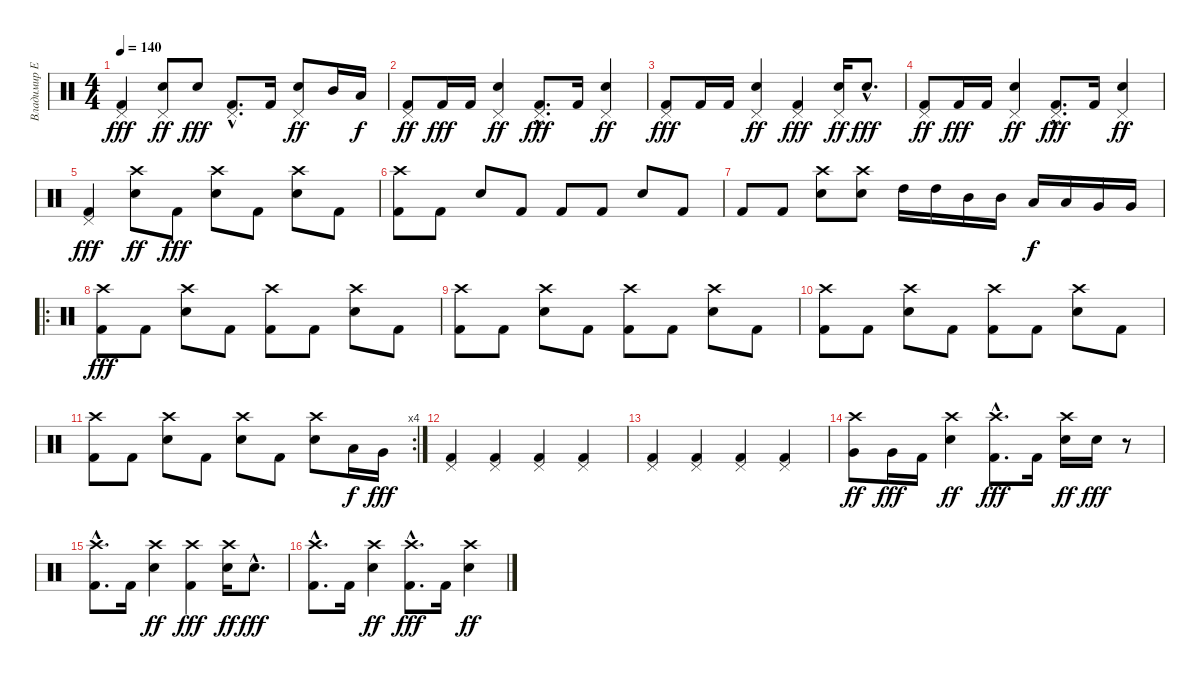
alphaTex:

\track ("Владимир Ермаков" "Владимир Е") {instrument percussion}
\staff {score}
\articulation defaults
\ts (4 4)
\tempo 140
\clef neutral
\ks c
("Kick (hit) 2" "Pedal Hi-Hat (hit)").4{dy fff} ("Electric Snare (hit)" "Pedal Hi-Hat (hit)").8{dy ff} "Electric Snare (hit)".8{dy fff} ("Kick (hit) 2"{hac} "Pedal Hi-Hat (hit)"{hac}).8{d} "Kick (hit) 2".16 ("Electric Snare (hit)" "Pedal Hi-Hat (hit)").8{dy ff} "Mid Tom (hit)".16 "Low Tom (hit)".16{dy f} |
("Kick (hit) 2" "Pedal Hi-Hat (hit)").8{dy ff} "Kick (hit) 2".16{dy fff} "Kick (hit) 2".16 ("Electric Snare (hit)" "Pedal Hi-Hat (hit)").4{dy ff} ("Kick (hit) 2"{hac} "Pedal Hi-Hat (hit)"{hac}).8{d dy fff} "Kick (hit) 2".16 ("Electric Snare (hit)" "Pedal Hi-Hat (hit)").4{dy ff} |
("Kick (hit) 2" "Pedal Hi-Hat (hit)").8{dy fff} "Kick (hit) 2".16 "Kick (hit) 2".16 ("Electric Snare (hit)" "Pedal Hi-Hat (hit)").4{dy ff} ("Kick (hit) 2" "Pedal Hi-Hat (hit)").4{dy fff} ("Electric Snare (hit)" "Pedal Hi-Hat (hit)").16{dy ff} "Electric Snare (hit)"{hac}.8{d dy fff} |
("Kick (hit) 2" "Pedal Hi-Hat (hit)").8{dy ff} "Kick (hit) 2".16{dy fff} "Kick (hit) 2".16 ("Electric Snare (hit)" "Pedal Hi-Hat (hit)").4{dy ff} ("Kick (hit) 2"{hac} "Pedal Hi-Hat (hit)"{hac}).8{d dy fff} "Kick (hit) 2".16 ("Electric Snare (hit)" "Pedal Hi-Hat (hit)").4{dy ff} |
("Kick (hit) 2" "Pedal Hi-Hat (hit)").4{dy fff} ("Electric Snare (hit)" "Crash high (hit)").8{dy ff} "Kick (hit) 2".8{dy fff} ("Electric Snare (hit)" "Crash high (hit)").8 "Kick (hit) 2".8 ("Electric Snare (hit)" "Crash high (hit)").8 "Kick (hit) 2".8 |
("Crash high (hit)" "Kick (hit) 2").8 "Kick (hit) 2".8 "Electric Snare (hit)".8 "Kick (hit) 2".8 "Kick (hit) 2".8 "Kick (hit) 2".8 "Electric Snare (hit)".8 "Kick (hit) 2".8 |
"Kick (hit) 2".8 "Kick (hit) 2".8 ("Crash high (hit)" "Electric Snare (hit)").8 ("Crash high (hit)" "Electric Snare (hit)").8 "High Tom (hit)".16 "High Tom (hit)".16 "Mid Tom (hit)".16 "Mid Tom (hit)".16 "Low Tom (hit)".16{dy f} "Low Tom (hit)".16 "Very Low Tom (hit)".16 "Very Low Tom (hit)".16 |
\ro
("Crash high (hit)" "Kick (hit) 2").8{dy fff} "Kick (hit) 2".8 ("Crash high (hit)" "Electric Snare (hit)").8 "Kick (hit) 2".8 ("Crash high (hit)" "Kick (hit) 2").8 "Kick (hit) 2".8 ("Crash high (hit)" "Electric Snare (hit)").8 "Kick (hit) 2".8 |
("Crash high (hit)" "Kick (hit) 2").8 "Kick (hit) 2".8 ("Crash high (hit)" "Electric Snare (hit)").8 "Kick (hit) 2".8 ("Crash high (hit)" "Kick (hit) 2").8 "Kick (hit) 2".8 ("Crash high (hit)" "Electric Snare (hit)").8 "Kick (hit) 2".8 |
("Crash high (hit)" "Kick (hit) 2").8 "Kick (hit) 2".8 ("Crash high (hit)" "Electric Snare (hit)").8 "Kick (hit) 2".8 ("Crash high (hit)" "Kick (hit) 2").8 "Kick (hit) 2".8 ("Crash high (hit)" "Electric Snare (hit)").8 "Kick (hit) 2".8 |
\rc 4
("Crash high (hit)" "Kick (hit) 2").8 "Kick (hit) 2".8 ("Crash high (hit)" "Electric Snare (hit)").8 "Kick (hit) 2".8 ("Crash high (hit)" "Electric Snare (hit)").8 "Kick (hit) 2".8 ("Crash high (hit)" "Electric Snare (hit)").8 "Low Tom (hit)".16{dy f} "Very Low Tom (hit)".16{dy fff} |
("Pedal Hi-Hat (hit)" "Kick (hit) 2").4 ("Pedal Hi-Hat (hit)" "Kick (hit) 2").4 ("Pedal Hi-Hat (hit)" "Kick (hit) 2").4 ("Pedal Hi-Hat (hit)" "Kick (hit) 2").4 |
("Pedal Hi-Hat (hit)" "Kick (hit) 2").4 ("Pedal Hi-Hat (hit)" "Kick (hit) 2").4 ("Pedal Hi-Hat (hit)" "Kick (hit) 2").4 ("Pedal Hi-Hat (hit)" "Kick (hit) 2").4 |
("Very Low Tom (hit)" "Crash high (hit)").8{dy ff} "Very Low Tom (hit)".16{dy fff} "Kick (hit) 2".16 ("Electric Snare (hit)" "Crash high (hit)").4{dy ff} ("Kick (hit) 2"{hac} "Crash high (hit)"{hac}).8{d dy fff} "Kick (hit) 2".16 ("Electric Snare (hit)" "Crash high (hit)").16{dy ff} "Electric Snare (hit)".16{dy fff} r.8 |
("Kick (hit) 2"{hac} "Crash high (hit)"{hac}).8{d} "Kick (hit) 2".16 ("Electric Snare (hit)" "Crash high (hit)").4{dy ff} ("Kick (hit) 2" "Crash high (hit)").4{dy fff} ("Electric Snare (hit)" "Crash high (hit)").16{dy ff} "Electric Snare (hit)"{hac}.8{d dy fff} |
("Kick (hit) 2"{hac} "Crash high (hit)"{hac}).8{d} "Kick (hit) 2".16 ("Electric Snare (hit)" "Crash high (hit)").4{dy ff} ("Kick (hit) 2"{hac} "Crash high (hit)"{hac}).8{d dy fff} "Kick (hit) 2".16 ("Electric Snare (hit)" "Crash high (hit)").4{dy ff}
